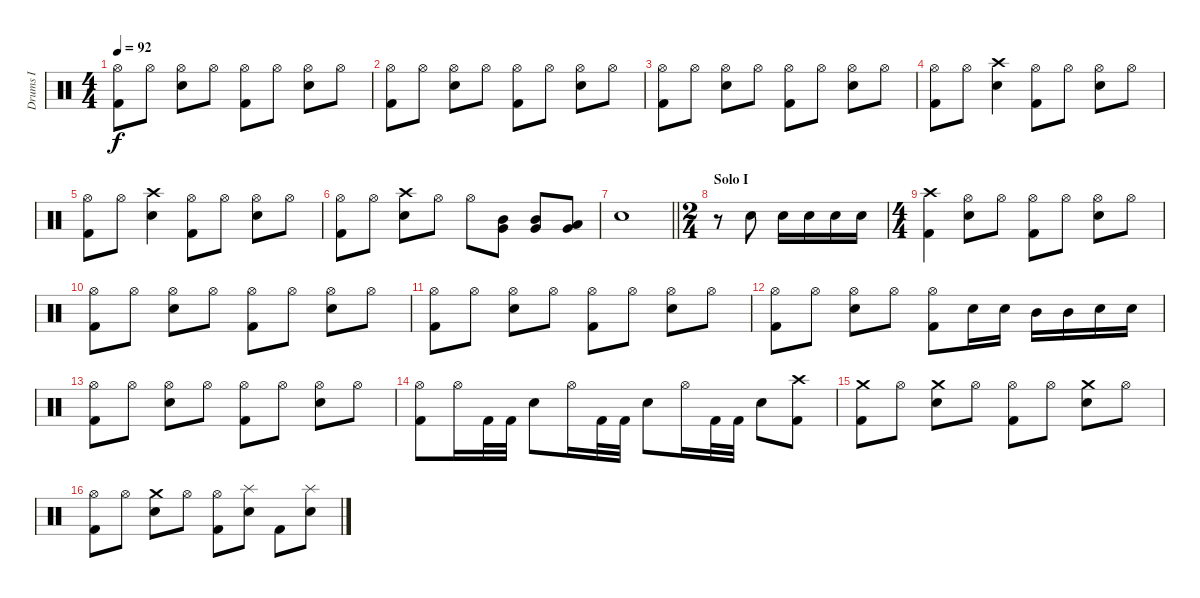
\track ("Drums I" "Drums I") {instrument percussion}
\staff {score}
\articulation defaults
\ts (4 4)
\tempo 92
\clef neutral
\ks c
("Hi-Hat (open)" "Kick (hit) 2").8{dy f} "Hi-Hat (open)".8 ("Hi-Hat (open)" "Electric Snare (hit)").8 "Hi-Hat (open)".8 ("Hi-Hat (open)" "Kick (hit) 2").8 "Hi-Hat (open)".8 ("Hi-Hat (open)" "Electric Snare (hit)").8 "Hi-Hat (open)".8 |
("Hi-Hat (open)" "Kick (hit) 2").8 "Hi-Hat (open)".8 ("Hi-Hat (open)" "Electric Snare (hit)").8 "Hi-Hat (open)".8 ("Hi-Hat (open)" "Kick (hit) 2").8 "Hi-Hat (open)".8 ("Hi-Hat (open)" "Electric Snare (hit)").8 "Hi-Hat (open)".8 |
("Hi-Hat (open)" "Kick (hit) 2").8 "Hi-Hat (open)".8 ("Hi-Hat (open)" "Electric Snare (hit)").8 "Hi-Hat (open)".8 ("Hi-Hat (open)" "Kick (hit) 2").8 "Hi-Hat (open)".8 ("Hi-Hat (open)" "Electric Snare (hit)").8 "Hi-Hat (open)".8 |
("Hi-Hat (open)" "Kick (hit) 2").8 "Hi-Hat (open)".8 ("Crash high (hit)" "Electric Snare (hit)").4 ("Hi-Hat (open)" "Kick (hit) 2").8 "Hi-Hat (open)".8 ("Hi-Hat (open)" "Electric Snare (hit)").8 "Hi-Hat (open)".8 |
("Hi-Hat (open)" "Kick (hit) 2").8 "Hi-Hat (open)".8 ("Crash high (hit)" "Electric Snare (hit)").4 ("Hi-Hat (open)" "Kick (hit) 2").8 "Hi-Hat (open)".8 ("Hi-Hat (open)" "Electric Snare (hit)").8 "Hi-Hat (open)".8 |
("Hi-Hat (open)" "Kick (hit) 2").8 "Hi-Hat (open)".8 ("Crash high (hit)" "Electric Snare (hit)").8 "Hi-Hat (open)".8 "Hi-Hat (open)".8 ("Mid Tom (hit)" "Very Low Tom (hit)").8 ("Mid Tom (hit)" "Very Low Tom (hit)").8 ("Low Tom (hit)" "Very Low Tom (hit)").8 |
\barLineRight lightlight "Electric Snare (hit)".1
|
\ts (2 4)
\section ("" "Solo I")
r.8 "Electric Snare (hit)".8 "Electric Snare (hit)".16 "Electric Snare (hit)".16 "Electric Snare (hit)".16 "Electric Snare (hit)".16 |
\ts (4 4)
("Crash high (hit)" "Kick (hit) 2").4 ("Hi-Hat (open)" "Electric Snare (hit)").8 "Hi-Hat (open)".8 ("Hi-Hat (open)" "Kick (hit) 2").8 "Hi-Hat (open)".8 ("Hi-Hat (open)" "Electric Snare (hit)").8 "Hi-Hat (open)".8 |
("Hi-Hat (open)" "Kick (hit) 2").8 "Hi-Hat (open)".8 ("Hi-Hat (open)" "Electric Snare (hit)").8 "Hi-Hat (open)".8 ("Hi-Hat (open)" "Kick (hit) 2").8 "Hi-Hat (open)".8 ("Hi-Hat (open)" "Electric Snare (hit)").8 "Hi-Hat (open)".8 |
("Hi-Hat (open)" "Kick (hit) 2").8 "Hi-Hat (open)".8 ("Hi-Hat (open)" "Electric Snare (hit)").8 "Hi-Hat (open)".8 ("Hi-Hat (open)" "Kick (hit) 2").8 "Hi-Hat (open)".8 ("Hi-Hat (open)" "Electric Snare (hit)").8 "Hi-Hat (open)".8 |
("Hi-Hat (open)" "Kick (hit) 2").8 "Hi-Hat (open)".8 ("Hi-Hat (open)" "Electric Snare (hit)").8 "Hi-Hat (open)".8 ("Hi-Hat (open)" "Kick (hit) 2").8 "Electric Snare (hit)".16 "Electric Snare (hit)".16 "Mid Tom (hit)".16 "Mid Tom (hit)".16 "Electric Snare (hit)".16 "Electric Snare (hit)".16 |
("Hi-Hat (open)" "Kick (hit) 2").8 "Hi-Hat (open)".8 ("Hi-Hat (open)" "Electric Snare (hit)").8 "Hi-Hat (open)".8 ("Hi-Hat (open)" "Kick (hit) 2").8 "Hi-Hat (open)".8 ("Hi-Hat (open)" "Electric Snare (hit)").8 "Hi-Hat (open)".8 |
("Hi-Hat (open)" "Kick (hit) 2").8 "Hi-Hat (open)".16 "Kick (hit) 2".32 "Kick (hit) 2".32 "Electric Snare (hit)".8 "Hi-Hat (open)".16 "Kick (hit) 2".32 "Kick (hit) 2".32 "Electric Snare (hit)".8 "Hi-Hat (open)".16 "Kick (hit) 2".32 "Kick (hit) 2".32 "Electric Snare (hit)".8 ("Crash high (hit)" "Kick (hit) 2").8 |
("Crash medium (hit)" "Kick (hit) 2").8 "Hi-Hat (open)".8 ("Crash medium (hit)" "Electric Snare (hit)").8 "Hi-Hat (open)".8 ("Hi-Hat (open)" "Kick (hit) 2").8 "Hi-Hat (open)".8 ("Crash medium (hit)" "Electric Snare (hit)").8 "Hi-Hat (open)".8 |
("Hi-Hat (open)" "Kick (hit) 2").8 "Hi-Hat (open)".8 ("Crash medium (hit)" "Electric Snare (hit)").8 "Hi-Hat (open)".8 ("Hi-Hat (open)" "Kick (hit) 2").8 ("Splash (hit)" "Electric Snare (hit)").8 "Kick (hit) 2".8 ("Splash (hit)" "Electric Snare (hit)").8
